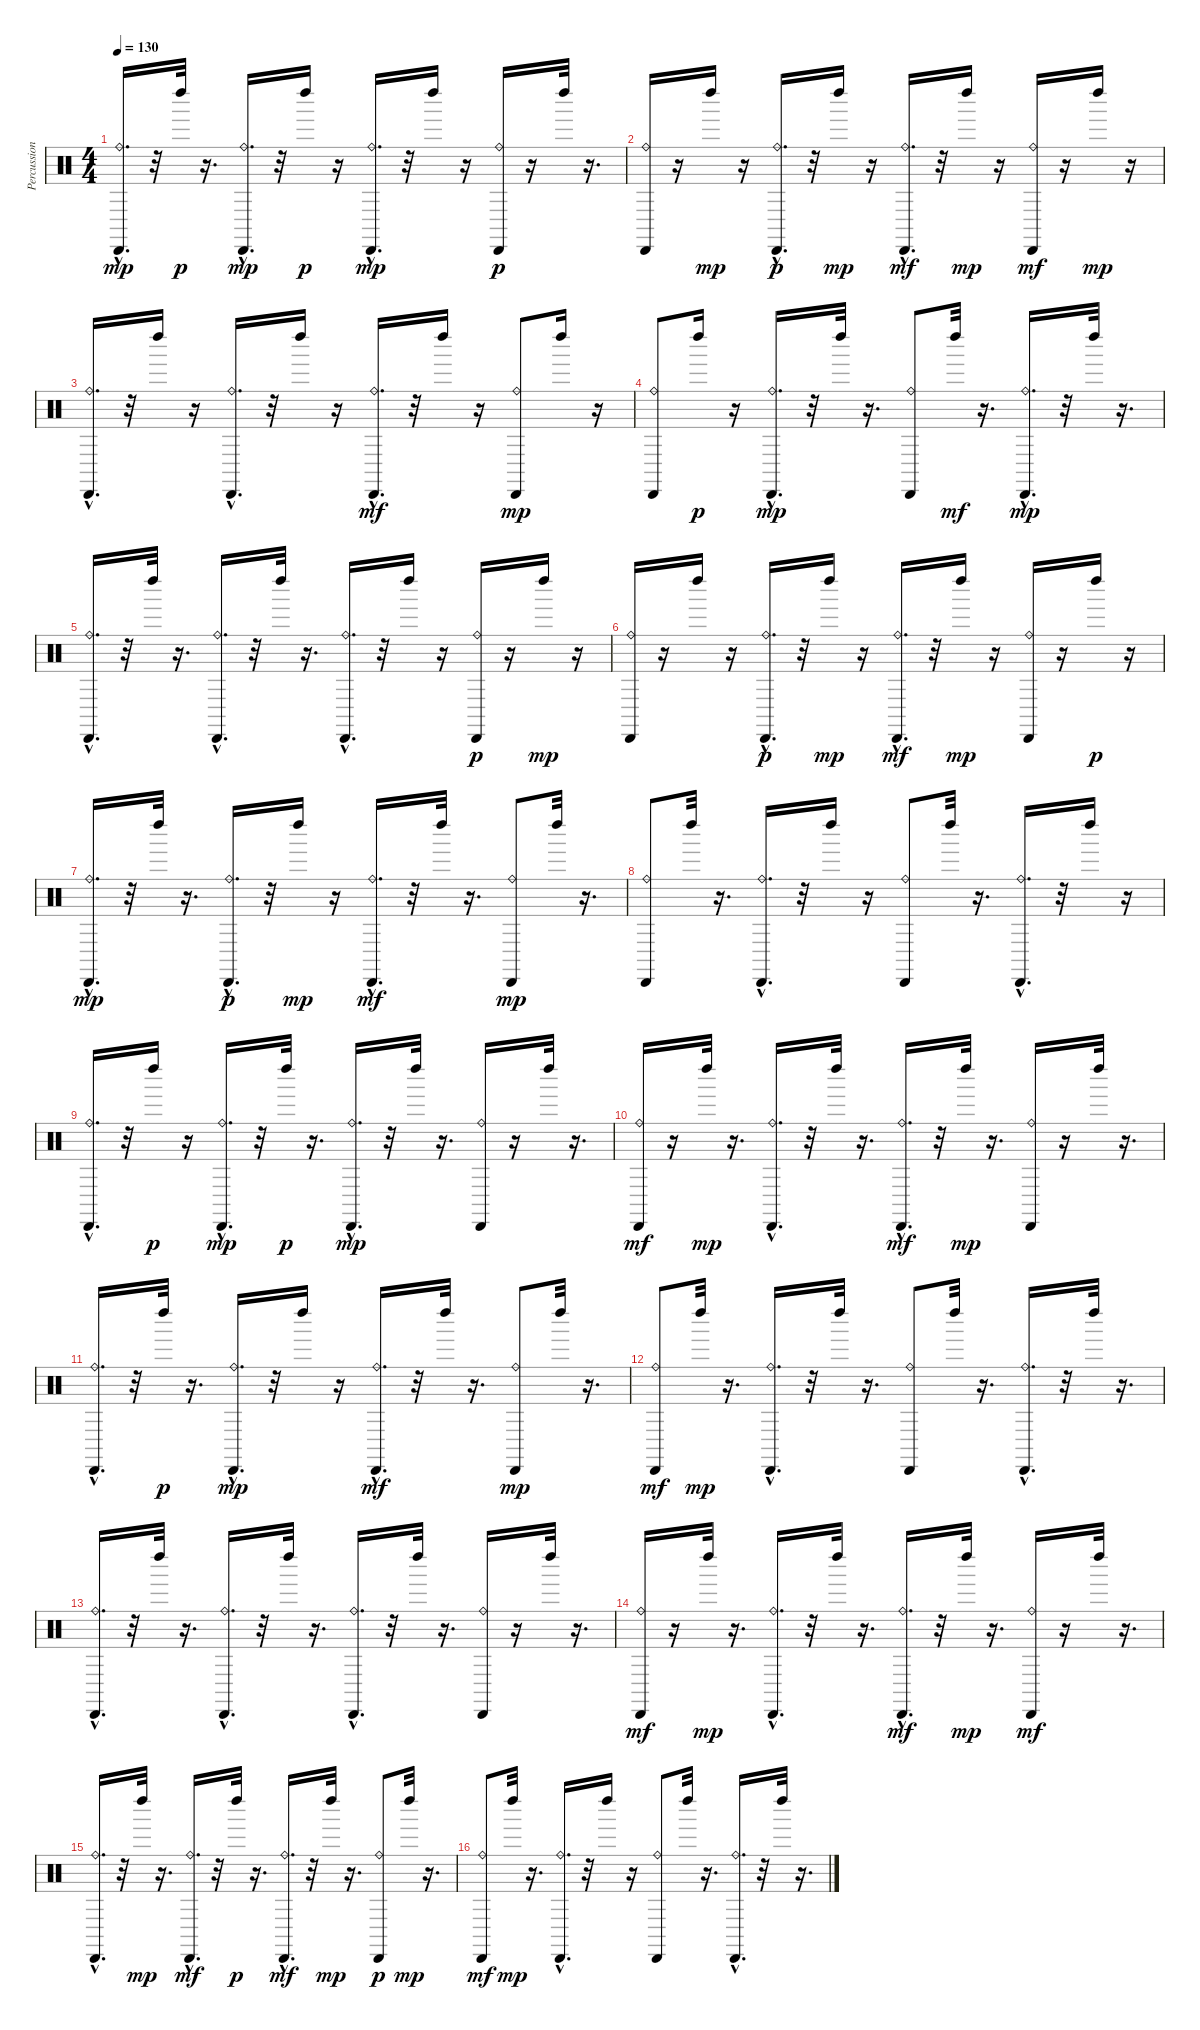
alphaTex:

\track ("Percussion" "Percussion") {instrument percussion}
\staff {score}
\articulation defaults
\ts (4 4)
\tempo 130
\clef neutral
\ks c
("Cabasa (hit)" "Ride (bell)"{hac}).16{d dy mp} r.32 "Left Maraca (hit)".32{dy p} r.16{d} ("Cabasa (hit)" "Ride (bell)"{hac}).16{d dy mp} r.32 "Left Maraca (hit)".16{dy p} r.16 ("Ride (bell)"{hac} "Cabasa (hit)"{hac}).16{d dy mp} r.32 "Left Maraca (hit)".16 r.16 ("Ride (bell)" "Cabasa (hit)").16{dy p} r.16 "Left Maraca (hit)".32 r.16{d} |
("Ride (bell)" "Cabasa (hit)").16 r.16 "Left Maraca (hit)".16{dy mp} r.16 ("Ride (bell)"{hac} "Cabasa (hit)").16{d dy p} r.32 "Left Maraca (hit)".16{dy mp} r.16 ("Ride (bell)"{hac} "Cabasa (hit)").16{d dy mf} r.32 "Left Maraca (hit)".16{dy mp} r.16 ("Cabasa (hit)" "Ride (bell)").16{dy mf} r.16 "Left Maraca (hit)".16{dy mp} r.16 |
("Cabasa (hit)" "Ride (bell)"{hac}).16{d} r.32 "Left Maraca (hit)".16 r.16 ("Ride (bell)"{hac} "Cabasa (hit)").16{d} r.32 "Left Maraca (hit)".16 r.16 ("Ride (bell)"{hac} "Cabasa (hit)").16{d dy mf} r.32 "Left Maraca (hit)".16 r.16 ("Ride (bell)" "Cabasa (hit)").8{dy mp} "Left Maraca (hit)".16 r.16 |
("Ride (bell)" "Cabasa (hit)").8 "Left Maraca (hit)".16{dy p} r.16 ("Ride (bell)"{hac} "Cabasa (hit)").16{d dy mp} r.32 "Left Maraca (hit)".32 r.16{d} ("Ride (bell)" "Cabasa (hit)").8 "Left Maraca (hit)".32{dy mf} r.16{d} ("Ride (bell)"{hac} "Cabasa (hit)").16{d dy mp} r.32 "Left Maraca (hit)".32 r.16{d} |
("Ride (bell)"{hac} "Cabasa (hit)").16{d} r.32 "Left Maraca (hit)".32 r.16{d} ("Cabasa (hit)" "Ride (bell)"{hac}).16{d} r.32 "Left Maraca (hit)".32 r.16{d} ("Ride (bell)"{hac} "Cabasa (hit)").16{d} r.32 "Left Maraca (hit)".16 r.16 ("Ride (bell)" "Cabasa (hit)").16{dy p} r.16 "Left Maraca (hit)".16{dy mp} r.16 |
("Ride (bell)" "Cabasa (hit)").16 r.16 "Left Maraca (hit)".16 r.16 ("Ride (bell)"{hac} "Cabasa (hit)").16{d dy p} r.32 "Left Maraca (hit)".16{dy mp} r.16 ("Ride (bell)"{hac} "Cabasa (hit)").16{d dy mf} r.32 "Left Maraca (hit)".16{dy mp} r.16 ("Ride (bell)" "Cabasa (hit)").16 r.16 "Left Maraca (hit)".16{dy p} r.16 |
("Ride (bell)"{hac} "Cabasa (hit)").16{d dy mp} r.32 "Left Maraca (hit)".32 r.16{d} ("Ride (bell)"{hac} "Cabasa (hit)").16{d dy p} r.32 "Left Maraca (hit)".16{dy mp} r.16 ("Ride (bell)"{hac} "Cabasa (hit)").16{d dy mf} r.32 "Left Maraca (hit)".32 r.16{d} ("Ride (bell)" "Cabasa (hit)").8{dy mp} "Left Maraca (hit)".32 r.16{d} |
("Cabasa (hit)" "Ride (bell)").8 "Left Maraca (hit)".32 r.16{d} ("Cabasa (hit)" "Ride (bell)"{hac}).16{d} r.32 "Left Maraca (hit)".16 r.16 ("Cabasa (hit)" "Ride (bell)").8 "Left Maraca (hit)".32 r.16{d} ("Cabasa (hit)" "Ride (bell)"{hac}).16{d} r.32 "Left Maraca (hit)".16 r.16 |
("Cabasa (hit)" "Ride (bell)"{hac}).16{d} r.32 "Left Maraca (hit)".16{dy p} r.16 ("Cabasa (hit)" "Ride (bell)"{hac}).16{d dy mp} r.32 "Left Maraca (hit)".32{dy p} r.16{d} ("Cabasa (hit)" "Ride (bell)"{hac}).16{d dy mp} r.32 "Left Maraca (hit)".32 r.16{d} ("Cabasa (hit)" "Ride (bell)").16 r.16 "Left Maraca (hit)".32 r.16{d} |
("Cabasa (hit)" "Ride (bell)").16{dy mf} r.16 "Left Maraca (hit)".32{dy mp} r.16{d} ("Cabasa (hit)" "Ride (bell)"{hac}).16{d} r.32 "Left Maraca (hit)".32 r.16{d} ("Cabasa (hit)" "Ride (bell)"{hac}).16{d dy mf} r.32 "Left Maraca (hit)".32{dy mp} r.16{d} ("Ride (bell)" "Cabasa (hit)").16 r.16 "Left Maraca (hit)".32 r.16{d} |
("Cabasa (hit)" "Ride (bell)"{hac}).16{d} r.32 "Left Maraca (hit)".32{dy p} r.16{d} ("Cabasa (hit)" "Ride (bell)"{hac}).16{d dy mp} r.32 "Left Maraca (hit)".16 r.16 ("Ride (bell)"{hac} "Cabasa (hit)").16{d dy mf} r.32 "Left Maraca (hit)".32 r.16{d} ("Ride (bell)" "Cabasa (hit)").8{dy mp} "Left Maraca (hit)".32 r.16{d} |
("Ride (bell)" "Cabasa (hit)").8{dy mf} "Left Maraca (hit)".32{dy mp} r.16{d} ("Ride (bell)"{hac} "Cabasa (hit)").16{d} r.32 "Left Maraca (hit)".32 r.16{d} ("Ride (bell)" "Cabasa (hit)").8 "Left Maraca (hit)".32 r.16{d} ("Cabasa (hit)" "Ride (bell)"{hac}).16{d} r.32 "Left Maraca (hit)".32 r.16{d} |
("Cabasa (hit)" "Ride (bell)"{hac}).16{d} r.32 "Left Maraca (hit)".32 r.16{d} ("Ride (bell)"{hac} "Cabasa (hit)").16{d} r.32 "Left Maraca (hit)".32 r.16{d} ("Ride (bell)"{hac} "Cabasa (hit)").16{d} r.32 "Left Maraca (hit)".32 r.16{d} ("Ride (bell)" "Cabasa (hit)").16 r.16 "Left Maraca (hit)".32 r.16{d} |
("Ride (bell)" "Cabasa (hit)").16{dy mf} r.16 "Left Maraca (hit)".32{dy mp} r.16{d} ("Cabasa (hit)" "Ride (bell)"{hac}).16{d} r.32 "Left Maraca (hit)".32 r.16{d} ("Ride (bell)"{hac} "Cabasa (hit)").16{d dy mf} r.32 "Left Maraca (hit)".32{dy mp} r.16{d} ("Ride (bell)" "Cabasa (hit)").16{dy mf} r.16 "Left Maraca (hit)".32 r.16{d} |
("Ride (bell)"{hac} "Cabasa (hit)").16{d} r.32 "Left Maraca (hit)".32{dy mp} r.16{d} ("Ride (bell)"{hac} "Cabasa (hit)").16{d dy mf} r.32 "Left Maraca (hit)".32{dy p} r.16{d} ("Ride (bell)"{hac} "Cabasa (hit)").16{d dy mf} r.32 "Left Maraca (hit)".32{dy mp} r.16{d} ("Ride (bell)" "Cabasa (hit)").8{dy p} "Left Maraca (hit)".32{dy mp} r.16{d} |
("Ride (bell)" "Cabasa (hit)").8{dy mf} "Left Maraca (hit)".32{dy mp} r.16{d} ("Ride (bell)"{hac} "Cabasa (hit)").16{d} r.32 "Left Maraca (hit)".16 r.16 ("Ride (bell)" "Cabasa (hit)").8 "Left Maraca (hit)".32 r.16{d} ("Cabasa (hit)" "Ride (bell)"{hac}).16{d} r.32 "Left Maraca (hit)".32 r.16{d}
